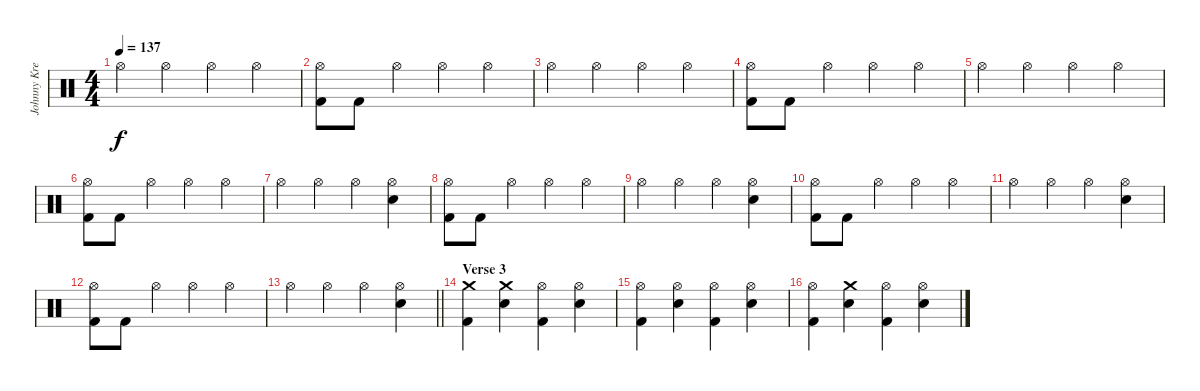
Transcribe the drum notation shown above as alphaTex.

\track ("Johnny Kreis" "Johnny Kre") {instrument percussion}
\staff {score}
\articulation defaults
\ts (4 4)
\tempo 137
\clef neutral
\ks c "Hi-Hat (open)".4{dy f} "Hi-Hat (open)".4 "Hi-Hat (open)".4 "Hi-Hat (open)".4
|
("Hi-Hat (open)" "Kick (hit) 2").8 "Kick (hit) 2".8 "Hi-Hat (open)".4 "Hi-Hat (open)".4 "Hi-Hat (open)".4 |
"Hi-Hat (open)".4 "Hi-Hat (open)".4 "Hi-Hat (open)".4 "Hi-Hat (open)".4 |
("Hi-Hat (open)" "Kick (hit) 2").8 "Kick (hit) 2".8 "Hi-Hat (open)".4 "Hi-Hat (open)".4 "Hi-Hat (open)".4 |
"Hi-Hat (open)".4 "Hi-Hat (open)".4 "Hi-Hat (open)".4 "Hi-Hat (open)".4 |
("Hi-Hat (open)" "Kick (hit) 2").8 "Kick (hit) 2".8 "Hi-Hat (open)".4 "Hi-Hat (open)".4 "Hi-Hat (open)".4 |
"Hi-Hat (open)".4 "Hi-Hat (open)".4 "Hi-Hat (open)".4 ("Hi-Hat (open)" "Snare (hit) 2").4 |
("Hi-Hat (open)" "Kick (hit) 2").8 "Kick (hit) 2".8 "Hi-Hat (open)".4 "Hi-Hat (open)".4 "Hi-Hat (open)".4 |
"Hi-Hat (open)".4 "Hi-Hat (open)".4 "Hi-Hat (open)".4 ("Hi-Hat (open)" "Snare (hit) 2").4 |
("Hi-Hat (open)" "Kick (hit) 2").8 "Kick (hit) 2".8 "Hi-Hat (open)".4 "Hi-Hat (open)".4 "Hi-Hat (open)".4 |
"Hi-Hat (open)".4 "Hi-Hat (open)".4 "Hi-Hat (open)".4 ("Hi-Hat (open)" "Snare (hit) 2").4 |
("Hi-Hat (open)" "Kick (hit) 2").8 "Kick (hit) 2".8 "Hi-Hat (open)".4 "Hi-Hat (open)".4 "Hi-Hat (open)".4 |
\barLineRight lightlight "Hi-Hat (open)".4 "Hi-Hat (open)".4 "Hi-Hat (open)".4
("Hi-Hat (open)" "Snare (hit) 2").4 |
\section ("" "Verse 3")
("Crash medium (hit)" "Kick (hit) 2").4 ("Crash medium (hit)" "Snare (hit) 2").4 ("Hi-Hat (open)" "Kick (hit) 2").4 ("Hi-Hat (open)" "Snare (hit) 2").4 |
("Hi-Hat (open)" "Kick (hit) 2").4 ("Hi-Hat (open)" "Snare (hit) 2").4 ("Hi-Hat (open)" "Kick (hit) 2").4 ("Hi-Hat (open)" "Snare (hit) 2").4 |
("Hi-Hat (open)" "Kick (hit) 2").4 ("Crash medium (hit)" "Snare (hit) 2").4 ("Hi-Hat (open)" "Kick (hit) 2").4 ("Hi-Hat (open)" "Snare (hit) 2").4
